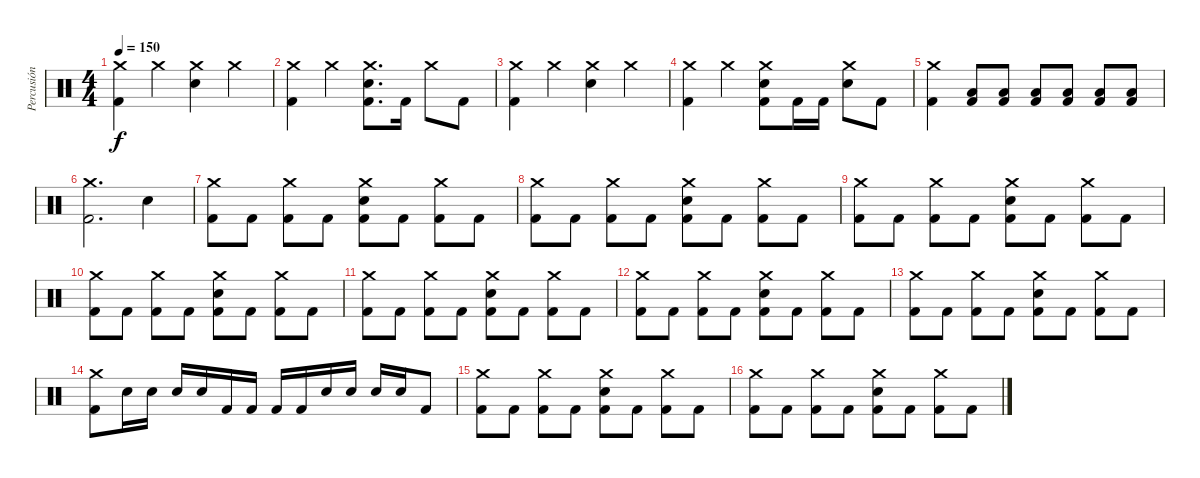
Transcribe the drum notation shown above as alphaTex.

\track ("Percusión" "Percusión") {instrument percussion}
\staff {score}
\articulation defaults
\ts (4 4)
\tempo 150
\clef neutral
\ks c
("Crash medium (hit)" "Kick (hit) 2").4{dy f} "Crash medium (hit)".4 ("Crash medium (hit)" "Electric Snare (hit)").4 "Crash medium (hit)".4 |
("Crash medium (hit)" "Kick (hit) 2").4 "Crash medium (hit)".4 ("Crash medium (hit)" "Electric Snare (hit)" "Kick (hit) 2").8{d} "Kick (hit) 2".16 "Crash medium (hit)".8 "Kick (hit) 2".8 |
("Crash medium (hit)" "Kick (hit) 2").4 "Crash medium (hit)".4 ("Crash medium (hit)" "Electric Snare (hit)").4 "Crash medium (hit)".4 |
("Crash medium (hit)" "Kick (hit) 2").4 "Crash medium (hit)".4 ("Crash medium (hit)" "Electric Snare (hit)" "Kick (hit) 2").8 "Kick (hit) 2".16 "Kick (hit) 2".16 ("Crash medium (hit)" "Electric Snare (hit)").8 "Kick (hit) 2".8 |
("Crash medium (hit)" "Kick (hit) 2").4 ("Low Floor Tom (hit)" "Kick (hit) 2").8 ("Low Floor Tom (hit)" "Kick (hit) 2").8 ("Low Floor Tom (hit)" "Kick (hit) 2").8 ("Low Floor Tom (hit)" "Kick (hit) 2").8 ("Low Floor Tom (hit)" "Kick (hit) 2").8 ("Low Floor Tom (hit)" "Kick (hit) 2").8 |
("Crash medium (hit)" "Kick (hit) 2").2{d} "Electric Snare (hit)".4 |
("Crash medium (hit)" "Kick (hit) 2").8 "Kick (hit) 2".8 ("Crash medium (hit)" "Kick (hit) 2").8 "Kick (hit) 2".8 ("Crash medium (hit)" "Electric Snare (hit)" "Kick (hit) 2").8 "Kick (hit) 2".8 ("Crash medium (hit)" "Kick (hit) 2").8 "Kick (hit) 2".8 |
("Crash medium (hit)" "Kick (hit) 2").8 "Kick (hit) 2".8 ("Crash medium (hit)" "Kick (hit) 2").8 "Kick (hit) 2".8 ("Crash medium (hit)" "Electric Snare (hit)" "Kick (hit) 2").8 "Kick (hit) 2".8 ("Crash medium (hit)" "Kick (hit) 2").8 "Kick (hit) 2".8 |
("Crash medium (hit)" "Kick (hit) 2").8 "Kick (hit) 2".8 ("Crash medium (hit)" "Kick (hit) 2").8 "Kick (hit) 2".8 ("Crash medium (hit)" "Electric Snare (hit)" "Kick (hit) 2").8 "Kick (hit) 2".8 ("Crash medium (hit)" "Kick (hit) 2").8 "Kick (hit) 2".8 |
("Crash medium (hit)" "Kick (hit) 2").8 "Kick (hit) 2".8 ("Crash medium (hit)" "Kick (hit) 2").8 "Kick (hit) 2".8 ("Crash medium (hit)" "Electric Snare (hit)" "Kick (hit) 2").8 "Kick (hit) 2".8 ("Crash medium (hit)" "Kick (hit) 2").8 "Kick (hit) 2".8 |
("Crash medium (hit)" "Kick (hit) 2").8 "Kick (hit) 2".8 ("Crash medium (hit)" "Kick (hit) 2").8 "Kick (hit) 2".8 ("Crash medium (hit)" "Electric Snare (hit)" "Kick (hit) 2").8 "Kick (hit) 2".8 ("Crash medium (hit)" "Kick (hit) 2").8 "Kick (hit) 2".8 |
("Crash medium (hit)" "Kick (hit) 2").8 "Kick (hit) 2".8 ("Crash medium (hit)" "Kick (hit) 2").8 "Kick (hit) 2".8 ("Crash medium (hit)" "Electric Snare (hit)" "Kick (hit) 2").8 "Kick (hit) 2".8 ("Crash medium (hit)" "Kick (hit) 2").8 "Kick (hit) 2".8 |
("Crash medium (hit)" "Kick (hit) 2").8 "Kick (hit) 2".8 ("Crash medium (hit)" "Kick (hit) 2").8 "Kick (hit) 2".8 ("Crash medium (hit)" "Electric Snare (hit)" "Kick (hit) 2").8 "Kick (hit) 2".8 ("Crash medium (hit)" "Kick (hit) 2").8 "Kick (hit) 2".8 |
("Crash medium (hit)" "Kick (hit) 2").8 "Electric Snare (hit)".16 "Electric Snare (hit)".16 "Electric Snare (hit)".16 "Electric Snare (hit)".16 "Kick (hit) 2".16 "Kick (hit) 2".16 "Kick (hit) 2".16 "Kick (hit) 2".16 "Electric Snare (hit)".16 "Electric Snare (hit)".16 "Electric Snare (hit)".16 "Electric Snare (hit)".16 "Kick (hit) 2".8 |
("Crash medium (hit)" "Kick (hit) 2").8 "Kick (hit) 2".8 ("Crash medium (hit)" "Kick (hit) 2").8 "Kick (hit) 2".8 ("Crash medium (hit)" "Electric Snare (hit)" "Kick (hit) 2").8 "Kick (hit) 2".8 ("Crash medium (hit)" "Kick (hit) 2").8 "Kick (hit) 2".8 |
("Crash medium (hit)" "Kick (hit) 2").8 "Kick (hit) 2".8 ("Crash medium (hit)" "Kick (hit) 2").8 "Kick (hit) 2".8 ("Crash medium (hit)" "Electric Snare (hit)" "Kick (hit) 2").8 "Kick (hit) 2".8 ("Crash medium (hit)" "Kick (hit) 2").8 "Kick (hit) 2".8
